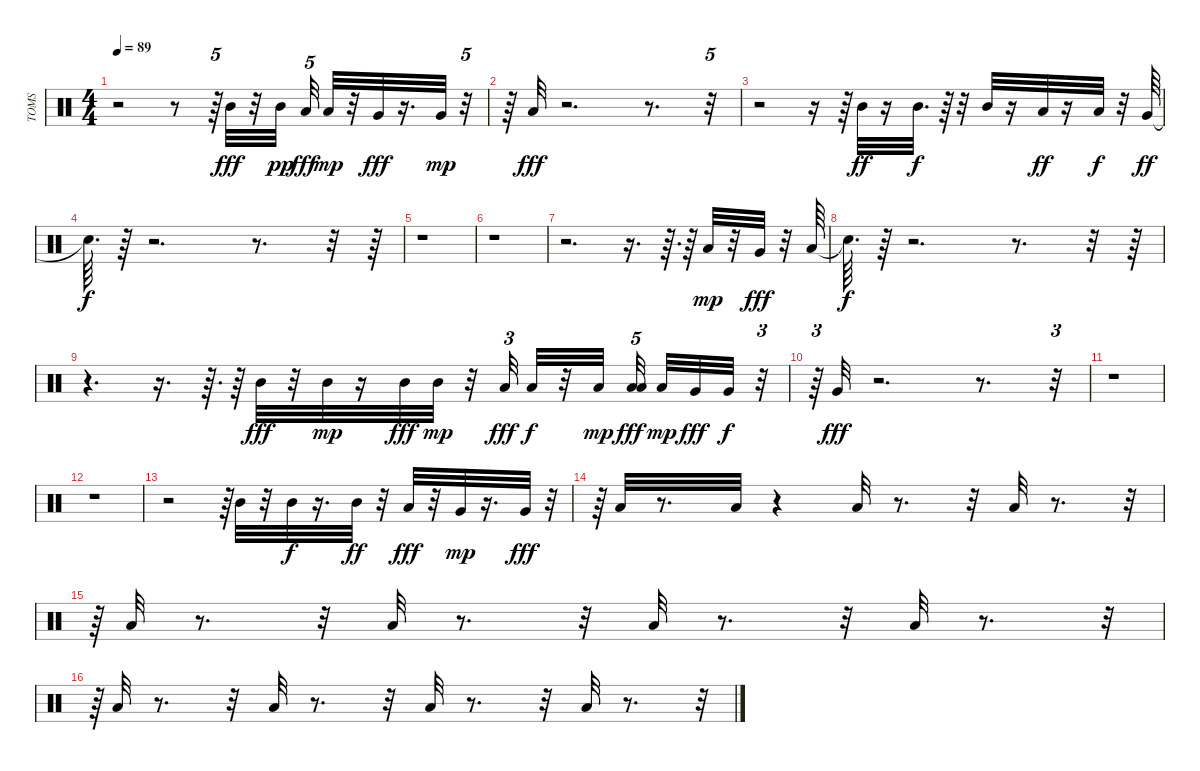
\track ("TOMS" "TOMS") {instrument percussion}
\staff {score}
\articulation defaults
\ts (4 4)
\tempo 89
\clef neutral
\ks c
r.2{dy fff} r.8 r.64{tu (5 4)} "Mid Tom (hit)".32 r.32 "Mid Tom (hit)".32{dy pp} "Low Tom (hit)".32{tu (5 4) dy fff} "Low Tom (hit)".32{dy mp} r.32 "Very Low Tom (hit)".32{dy fff} r.16{d} "Very Low Tom (hit)".32{dy mp} r.32{tu (5 4)} |
r.64 "Low Floor Tom (hit)".32{dy fff} r.2{d} r.8{d} r.32{tu (5 4)} |
r.2 r.16 r.64 "Mid Tom (hit)".32{dy ff} r.16 "Mid Tom (hit)".32{d dy f} r.64 r.32 "Mid Tom (hit)".32 r.16 "Low Tom (hit)".32{dy ff} r.16 "Low Tom (hit)".32{dy f} r.32 "Very Low Tom (hit)".64{dy ff} |
"Snare (hit)"{t}.64{d dy f} r.64 r.2{d} r.8{d} r.32 r.64 |
r.1 |
r.1 |
r.2{d} r.16{d} r.64{d} r.64 "Low Tom (hit)".32{dy mp} r.32 "Very Low Tom (hit)".32{dy fff} r.32 "Low Floor Tom (hit)".64 |
"Snare (hit)"{t}.64{d dy f} r.64 r.2{d} r.8{d} r.32 r.64 |
r.4{d} r.16{d} r.64{d} r.64 "Mid Tom (hit)".32{dy fff} r.32 "Mid Tom (hit)".32{dy mp} r.16 "Mid Tom (hit)".32{dy fff} "Mid Tom (hit)".32{dy mp} r.32 "Low Tom (hit)".32{tu (3 2) dy fff} "Low Tom (hit)".32{dy f} r.32 "Low Tom (hit)".32{dy mp beam splitsecondary} ("Low Tom (hit)" "Low Tom (hit)").32{tu (5 4) dy fff beam splitsecondary} "Low Tom (hit)".32{dy mp} "Very Low Tom (hit)".32{dy fff} "Very Low Tom (hit)".32{dy f} r.32{tu (3 2)} |
r.64{tu (3 2)} "Very Low Tom (hit)".32{dy fff} r.2{d} r.8{d} r.32{tu (3 2)} |
r.1 |
r.1 |
r.2 r.64{tu (3 2)} "Mid Tom (hit)".32 r.32 "Mid Tom (hit)".32{dy f} r.16{d} "Mid Tom (hit)".32{dy ff} r.32 "Low Tom (hit)".32{dy fff} r.32 "Very Low Tom (hit)".32{dy mp} r.16{d} "Very Low Tom (hit)".32{dy fff} r.32{tu (3 2)} |
r.64{tu (3 2)} "Low Floor Tom (hit)".32 r.8{d} "Low Floor Tom (hit)".32 r.4 "Low Floor Tom (hit)".32 r.8{d} r.32 "Low Floor Tom (hit)".32 r.8{d} r.32{tu (3 2)} |
r.64{tu (3 2)} "Low Floor Tom (hit)".32 r.8{d} r.32 "Low Floor Tom (hit)".32 r.8{d} r.32 "Low Floor Tom (hit)".32 r.8{d} r.32 "Low Floor Tom (hit)".32 r.8{d} r.32{tu (3 2)} |
r.64{tu (3 2)} "Low Floor Tom (hit)".32 r.8{d} r.32 "Low Floor Tom (hit)".32 r.8{d} r.32 "Low Floor Tom (hit)".32 r.8{d} r.32 "Low Floor Tom (hit)".32 r.8{d} r.32{tu (3 2)}
